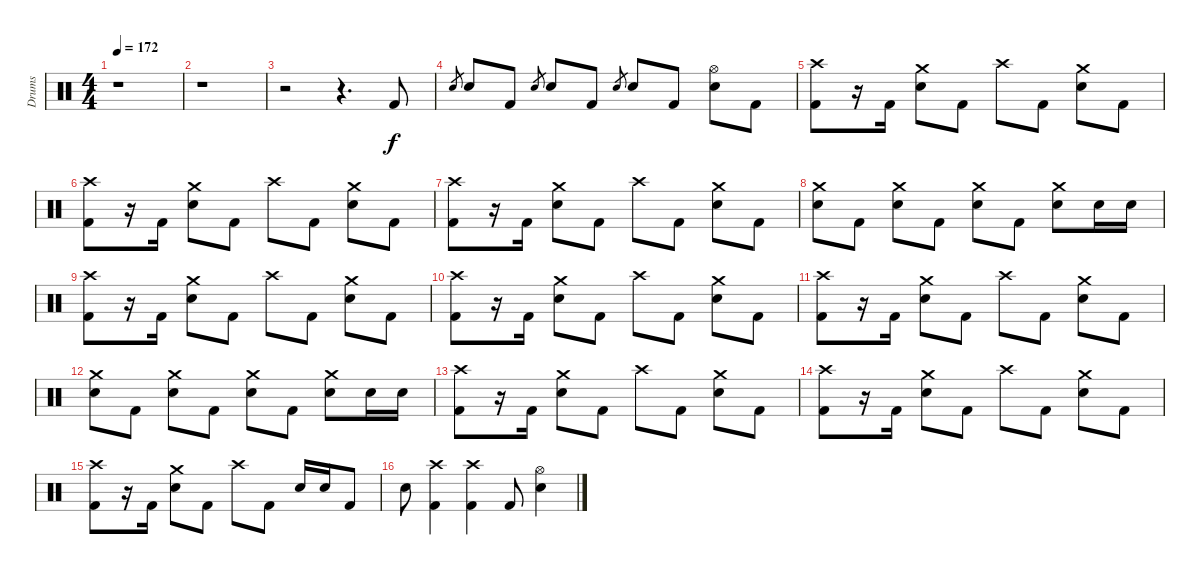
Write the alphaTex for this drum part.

\track ("Drums" "Drums") {instrument percussion}
\staff {score}
\articulation defaults
\ts (4 4)
\tempo 172
\clef neutral
\ks c
r.1{dy f} |
r.1 |
r.2 r.4{d} "Kick (hit) 2".8 |
"Snare (hit) 2".8{gr} "Snare (hit) 2".8 "Kick (hit) 2".8 "Snare (hit) 2".8{gr} "Snare (hit) 2".8 "Kick (hit) 2".8 "Snare (hit) 2".8{gr} "Snare (hit) 2".8 "Kick (hit) 2".8 ("Hi-Hat (open)" "Snare (hit) 2").8 "Kick (hit) 2".8 |
("Crash high (hit)" "Kick (hit) 2").8 r.16 "Kick (hit) 2".16 ("Crash medium (hit)" "Snare (hit) 2").8 "Kick (hit) 2".8 "Crash high (hit)".8 "Kick (hit) 2".8 ("Crash medium (hit)" "Snare (hit) 2").8 "Kick (hit) 2".8 |
("Crash high (hit)" "Kick (hit) 2").8 r.16 "Kick (hit) 2".16 ("Crash medium (hit)" "Snare (hit) 2").8 "Kick (hit) 2".8 "Crash high (hit)".8 "Kick (hit) 2".8 ("Crash medium (hit)" "Snare (hit) 2").8 "Kick (hit) 2".8 |
("Crash high (hit)" "Kick (hit) 2").8 r.16 "Kick (hit) 2".16 ("Crash medium (hit)" "Snare (hit) 2").8 "Kick (hit) 2".8 "Crash high (hit)".8 "Kick (hit) 2".8 ("Crash medium (hit)" "Snare (hit) 2").8 "Kick (hit) 2".8 |
("Crash medium (hit)" "Snare (hit) 2").8 "Kick (hit) 2".8 ("Crash medium (hit)" "Snare (hit) 2").8 "Kick (hit) 2".8 ("Crash medium (hit)" "Snare (hit) 2").8 "Kick (hit) 2".8 ("Crash medium (hit)" "Snare (hit) 2").8 "Snare (hit) 2".16 "Snare (hit) 2".16 |
("Crash high (hit)" "Kick (hit) 2").8 r.16 "Kick (hit) 2".16 ("Crash medium (hit)" "Snare (hit) 2").8 "Kick (hit) 2".8 "Crash high (hit)".8 "Kick (hit) 2".8 ("Crash medium (hit)" "Snare (hit) 2").8 "Kick (hit) 2".8 |
("Crash high (hit)" "Kick (hit) 2").8 r.16 "Kick (hit) 2".16 ("Crash medium (hit)" "Snare (hit) 2").8 "Kick (hit) 2".8 "Crash high (hit)".8 "Kick (hit) 2".8 ("Crash medium (hit)" "Snare (hit) 2").8 "Kick (hit) 2".8 |
("Crash high (hit)" "Kick (hit) 2").8 r.16 "Kick (hit) 2".16 ("Crash medium (hit)" "Snare (hit) 2").8 "Kick (hit) 2".8 "Crash high (hit)".8 "Kick (hit) 2".8 ("Crash medium (hit)" "Snare (hit) 2").8 "Kick (hit) 2".8 |
("Crash medium (hit)" "Snare (hit) 2").8 "Kick (hit) 2".8 ("Crash medium (hit)" "Snare (hit) 2").8 "Kick (hit) 2".8 ("Crash medium (hit)" "Snare (hit) 2").8 "Kick (hit) 2".8 ("Crash medium (hit)" "Snare (hit) 2").8 "Snare (hit) 2".16 "Snare (hit) 2".16 |
("Crash high (hit)" "Kick (hit) 2").8 r.16 "Kick (hit) 2".16 ("Crash medium (hit)" "Snare (hit) 2").8 "Kick (hit) 2".8 "Crash high (hit)".8 "Kick (hit) 2".8 ("Crash medium (hit)" "Snare (hit) 2").8 "Kick (hit) 2".8 |
("Crash high (hit)" "Kick (hit) 2").8 r.16 "Kick (hit) 2".16 ("Crash medium (hit)" "Snare (hit) 2").8 "Kick (hit) 2".8 "Crash high (hit)".8 "Kick (hit) 2".8 ("Crash medium (hit)" "Snare (hit) 2").8 "Kick (hit) 2".8 |
("Crash high (hit)" "Kick (hit) 2").8 r.16 "Kick (hit) 2".16 ("Crash medium (hit)" "Snare (hit) 2").8 "Kick (hit) 2".8 "Crash high (hit)".8 "Kick (hit) 2".8 "Snare (hit) 2".16 "Snare (hit) 2".16 "Kick (hit) 2".8 |
"Snare (hit) 2".8 ("Crash high (hit)" "Kick (hit) 2").4 ("Crash high (hit)" "Kick (hit) 2").4 "Kick (hit) 2".8 ("Hi-Hat (open)" "Snare (hit) 2").4
